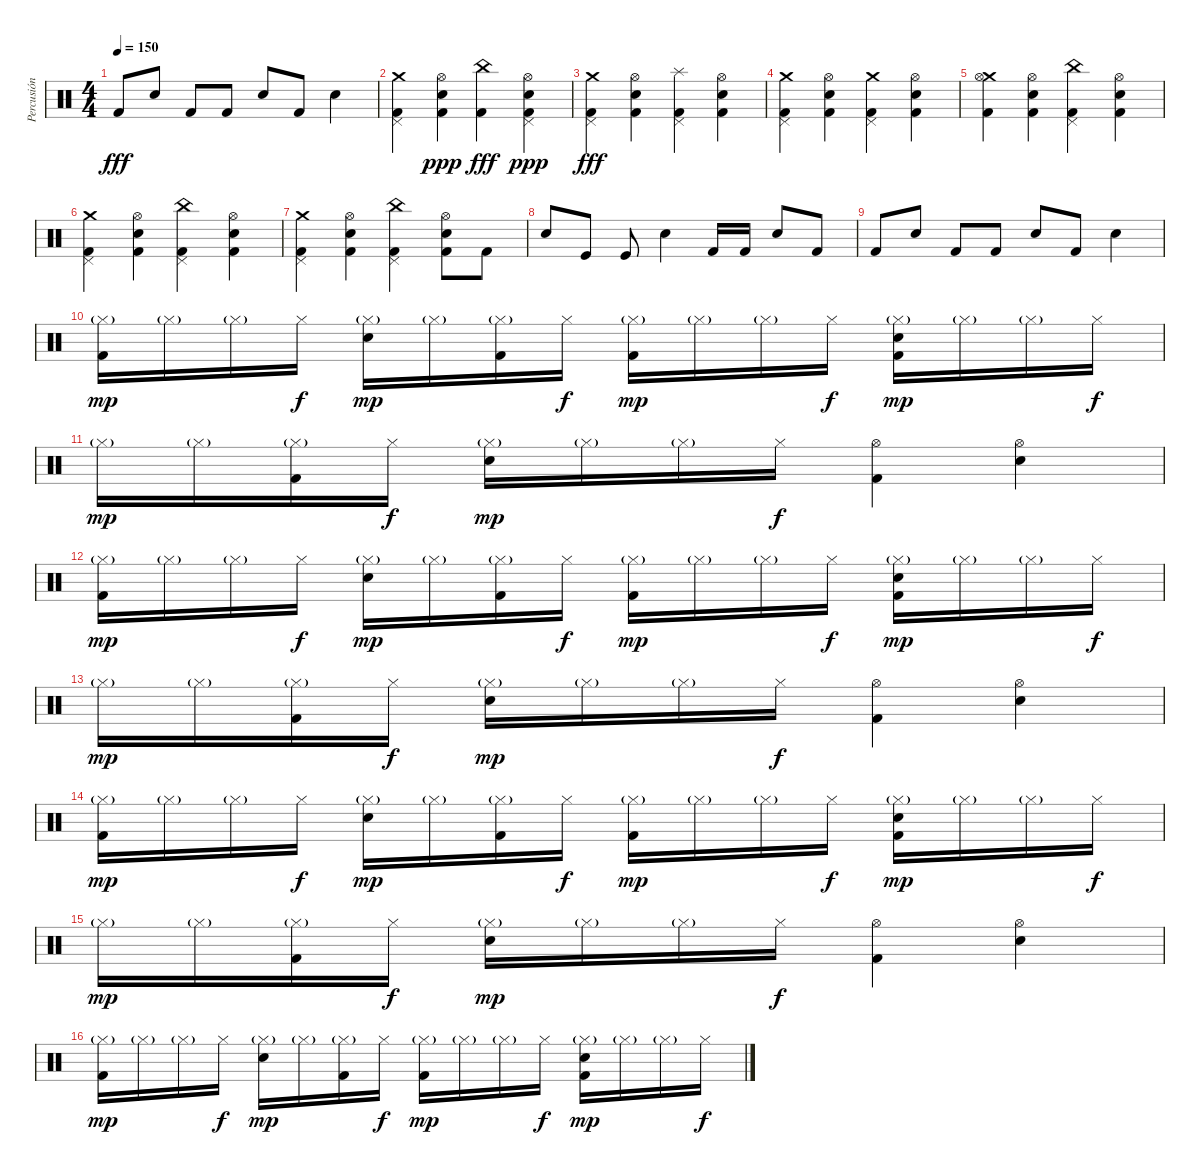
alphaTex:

\track ("Percusión" "Percusión") {instrument percussion}
\staff {score}
\articulation defaults
\ts (4 4)
\tempo 150
\clef neutral
\ks c "Kick (hit) 2".8{dy fff} "Electric Snare (hit)".8 "Kick (hit) 2".8 "Kick (hit) 2".8 "Electric Snare (hit)".8 "Kick (hit) 2".8 "Electric Snare (hit)".4
|
("Pedal Hi-Hat (hit)" "Kick (hit) 2" "Crash medium (hit)").4 ("Kick (hit) 2" "Electric Snare (hit)" "Hi-Hat (open)").4{dy ppp} ("China (hit)" "Kick (hit) 2").4{dy fff} ("Pedal Hi-Hat (hit)" "Kick (hit) 2" "Electric Snare (hit)" "Hi-Hat (open)").4{dy ppp} |
("Crash medium (hit)" "Kick (hit) 2" "Pedal Hi-Hat (hit)").4{dy fff} ("Hi-Hat (open)" "Kick (hit) 2" "Electric Snare (hit)").4 ("Splash (hit)" "Kick (hit) 2" "Pedal Hi-Hat (hit)").4 ("Hi-Hat (open)" "Kick (hit) 2" "Electric Snare (hit)").4 |
("Pedal Hi-Hat (hit)" "Kick (hit) 2" "Crash medium (hit)").4 ("Hi-Hat (open)" "Kick (hit) 2" "Electric Snare (hit)").4 ("Crash medium (hit)" "Kick (hit) 2" "Pedal Hi-Hat (hit)").4 ("Hi-Hat (open)" "Kick (hit) 2" "Electric Snare (hit)").4 |
("Crash medium (hit)" "Kick (hit) 2" "Hi-Hat (open)").4 ("Hi-Hat (open)" "Kick (hit) 2" "Electric Snare (hit)").4 ("China (hit)" "Kick (hit) 2" "Pedal Hi-Hat (hit)").4 ("Hi-Hat (open)" "Kick (hit) 2" "Electric Snare (hit)").4 |
("Pedal Hi-Hat (hit)" "Kick (hit) 2" "Crash medium (hit)").4 ("Hi-Hat (open)" "Kick (hit) 2" "Electric Snare (hit)").4 ("China (hit)" "Kick (hit) 2" "Pedal Hi-Hat (hit)").4 ("Hi-Hat (open)" "Kick (hit) 2" "Electric Snare (hit)").4 |
("Crash medium (hit)" "Kick (hit) 2" "Pedal Hi-Hat (hit)").4 ("Hi-Hat (open)" "Kick (hit) 2" "Electric Snare (hit)").4 ("China (hit)" "Kick (hit) 2" "Pedal Hi-Hat (hit)").4 ("Hi-Hat (open)" "Kick (hit) 2" "Electric Snare (hit)").8 "Kick (hit) 2".8 |
"Electric Snare (hit)".8 "Kick (hit)".8 "Kick (hit)".8 "Electric Snare (hit)".4 "Kick (hit) 2".16 "Kick (hit) 2".16 "Electric Snare (hit)".8 "Kick (hit) 2".8 |
"Kick (hit) 2".8 "Electric Snare (hit)".8 "Kick (hit) 2".8 "Kick (hit) 2".8 "Electric Snare (hit)".8 "Kick (hit) 2".8 "Electric Snare (hit)".4 |
("Hi-Hat (closed)"{g} "Kick (hit) 2").16{dy mp} "Hi-Hat (closed)"{g}.16 "Hi-Hat (closed)"{g}.16 "Hi-Hat (closed)".16{dy f} ("Hi-Hat (closed)"{g} "Electric Snare (hit)").16{dy mp} "Hi-Hat (closed)"{g}.16 ("Hi-Hat (closed)"{g} "Kick (hit) 2").16 "Hi-Hat (closed)".16{dy f} ("Hi-Hat (closed)"{g} "Kick (hit) 2").16{dy mp} "Hi-Hat (closed)"{g}.16 "Hi-Hat (closed)"{g}.16 "Hi-Hat (closed)".16{dy f} ("Hi-Hat (closed)"{g} "Kick (hit) 2" "Electric Snare (hit)").16{dy mp} "Hi-Hat (closed)"{g}.16 "Hi-Hat (closed)"{g}.16 "Hi-Hat (closed)".16{dy f} |
"Hi-Hat (closed)"{g}.16{dy mp} "Hi-Hat (closed)"{g}.16 ("Hi-Hat (closed)"{g} "Kick (hit) 2").16 "Hi-Hat (closed)".16{dy f} ("Hi-Hat (closed)"{g} "Electric Snare (hit)").16{dy mp} "Hi-Hat (closed)"{g}.16 "Hi-Hat (closed)"{g}.16 "Hi-Hat (closed)".16{dy f} ("Hi-Hat (open)" "Kick (hit) 2").4 ("Hi-Hat (open)" "Electric Snare (hit)").4 |
("Hi-Hat (closed)"{g} "Kick (hit) 2").16{dy mp} "Hi-Hat (closed)"{g}.16 "Hi-Hat (closed)"{g}.16 "Hi-Hat (closed)".16{dy f} ("Hi-Hat (closed)"{g} "Electric Snare (hit)").16{dy mp} "Hi-Hat (closed)"{g}.16 ("Hi-Hat (closed)"{g} "Kick (hit) 2").16 "Hi-Hat (closed)".16{dy f} ("Hi-Hat (closed)"{g} "Kick (hit) 2").16{dy mp} "Hi-Hat (closed)"{g}.16 "Hi-Hat (closed)"{g}.16 "Hi-Hat (closed)".16{dy f} ("Hi-Hat (closed)"{g} "Kick (hit) 2" "Electric Snare (hit)").16{dy mp} "Hi-Hat (closed)"{g}.16 "Hi-Hat (closed)"{g}.16 "Hi-Hat (closed)".16{dy f} |
"Hi-Hat (closed)"{g}.16{dy mp} "Hi-Hat (closed)"{g}.16 ("Hi-Hat (closed)"{g} "Kick (hit) 2").16 "Hi-Hat (closed)".16{dy f} ("Hi-Hat (closed)"{g} "Electric Snare (hit)").16{dy mp} "Hi-Hat (closed)"{g}.16 "Hi-Hat (closed)"{g}.16 "Hi-Hat (closed)".16{dy f} ("Hi-Hat (open)" "Kick (hit) 2").4 ("Hi-Hat (open)" "Electric Snare (hit)").4 |
("Hi-Hat (closed)"{g} "Kick (hit) 2").16{dy mp} "Hi-Hat (closed)"{g}.16 "Hi-Hat (closed)"{g}.16 "Hi-Hat (closed)".16{dy f} ("Hi-Hat (closed)"{g} "Electric Snare (hit)").16{dy mp} "Hi-Hat (closed)"{g}.16 ("Hi-Hat (closed)"{g} "Kick (hit) 2").16 "Hi-Hat (closed)".16{dy f} ("Hi-Hat (closed)"{g} "Kick (hit) 2").16{dy mp} "Hi-Hat (closed)"{g}.16 "Hi-Hat (closed)"{g}.16 "Hi-Hat (closed)".16{dy f} ("Hi-Hat (closed)"{g} "Kick (hit) 2" "Electric Snare (hit)").16{dy mp} "Hi-Hat (closed)"{g}.16 "Hi-Hat (closed)"{g}.16 "Hi-Hat (closed)".16{dy f} |
"Hi-Hat (closed)"{g}.16{dy mp} "Hi-Hat (closed)"{g}.16 ("Hi-Hat (closed)"{g} "Kick (hit) 2").16 "Hi-Hat (closed)".16{dy f} ("Hi-Hat (closed)"{g} "Electric Snare (hit)").16{dy mp} "Hi-Hat (closed)"{g}.16 "Hi-Hat (closed)"{g}.16 "Hi-Hat (closed)".16{dy f} ("Hi-Hat (open)" "Kick (hit) 2").4 ("Hi-Hat (open)" "Electric Snare (hit)").4 |
("Hi-Hat (closed)"{g} "Kick (hit) 2").16{dy mp} "Hi-Hat (closed)"{g}.16 "Hi-Hat (closed)"{g}.16 "Hi-Hat (closed)".16{dy f} ("Hi-Hat (closed)"{g} "Electric Snare (hit)").16{dy mp} "Hi-Hat (closed)"{g}.16 ("Hi-Hat (closed)"{g} "Kick (hit) 2").16 "Hi-Hat (closed)".16{dy f} ("Hi-Hat (closed)"{g} "Kick (hit) 2").16{dy mp} "Hi-Hat (closed)"{g}.16 "Hi-Hat (closed)"{g}.16 "Hi-Hat (closed)".16{dy f} ("Hi-Hat (closed)"{g} "Kick (hit) 2" "Electric Snare (hit)").16{dy mp} "Hi-Hat (closed)"{g}.16 "Hi-Hat (closed)"{g}.16 "Hi-Hat (closed)".16{dy f}
